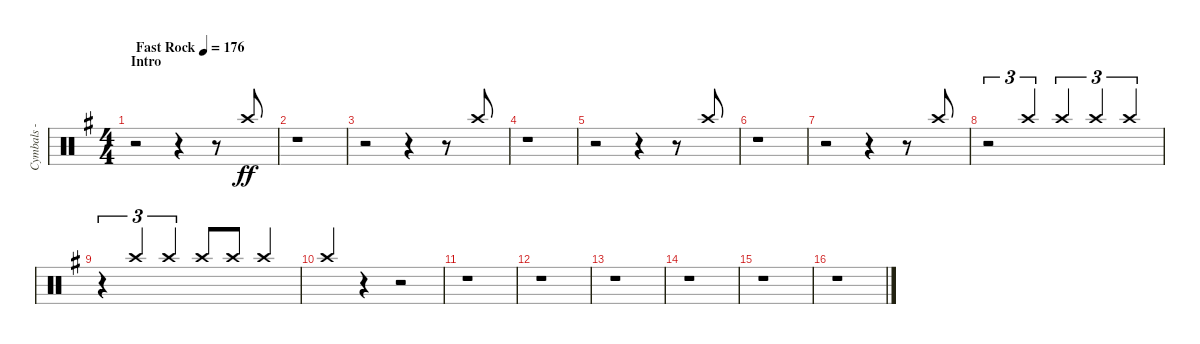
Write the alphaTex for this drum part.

\track ("Cymbals - crash" "Cymbals - ") {instrument percussion}
\staff {score}
\articulation defaults
\ts (4 4)
\section ("" "Intro")
\tempo (176 "Fast Rock")
\clef neutral
\ks eminor
r.2{dy ff volume 6} r.4 r.8 "Crash high (hit)".8{beam Up} |
r.1 |
r.2 r.4 r.8 "Crash high (hit)".8{beam Up} |
r.1 |
r.2 r.4 r.8 "Crash high (hit)".8{beam Up} |
r.1 |
r.2 r.4 r.8 "Crash high (hit)".8{beam Up} |
r.2{tu (3 2) beam Up} "Crash high (hit)".4{tu (3 2) beam Up} "Crash high (hit)".4{tu (3 2) beam Up} "Crash high (hit)".4{tu (3 2) beam Up} "Crash high (hit)".4{tu (3 2) beam Up} |
r.4{tu (3 2) beam Up} "Crash high (hit)".4{tu (3 2) beam Up} "Crash high (hit)".4{tu (3 2) beam Up} "Crash high (hit)".8{beam Up} "Crash high (hit)".8{beam Up} "Crash high (hit)".4{beam Up} |
"Crash high (hit)".4{beam Up} r.4 r.2 |
r.1 |
r.1 |
r.1 |
r.1 |
r.1 |
r.1
